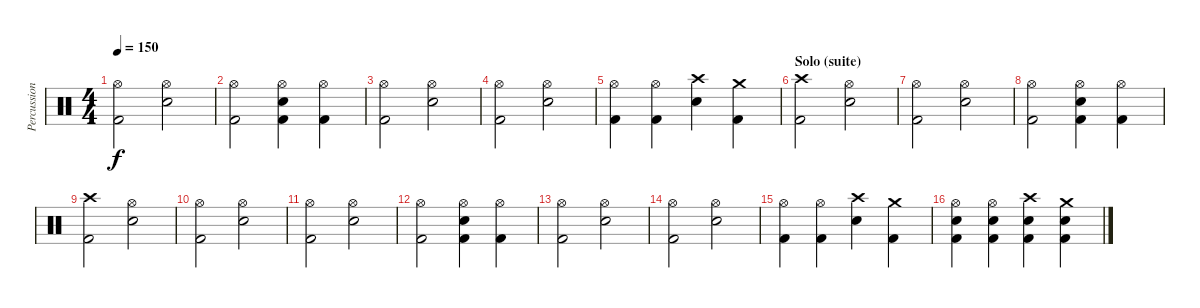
\track ("Percussions" "Percussion") {instrument percussion}
\staff {score}
\articulation defaults
\ts (4 4)
\tempo 150
\clef neutral
\ks c
("Hi-Hat (open)" "Kick (hit) 2").2{dy f} ("Hi-Hat (open)" "Snare (hit) 2").2 |
("Hi-Hat (open)" "Kick (hit) 2").2 ("Hi-Hat (open)" "Snare (hit) 2" "Kick (hit) 2").4 ("Hi-Hat (open)" "Kick (hit) 2").4 |
("Hi-Hat (open)" "Kick (hit) 2").2 ("Hi-Hat (open)" "Snare (hit) 2").2 |
("Hi-Hat (open)" "Kick (hit) 2").2 ("Hi-Hat (open)" "Snare (hit) 2").2 |
("Hi-Hat (open)" "Kick (hit) 2").4 ("Hi-Hat (open)" "Kick (hit) 2").4 ("Crash high (hit)" "Snare (hit) 2").4 ("Crash medium (hit)" "Kick (hit) 2").4 |
\section ("" "Solo (suite)")
("Crash high (hit)" "Kick (hit) 2").2 ("Hi-Hat (open)" "Snare (hit) 2").2 |
("Hi-Hat (open)" "Kick (hit) 2").2 ("Hi-Hat (open)" "Snare (hit) 2").2 |
("Hi-Hat (open)" "Kick (hit) 2").2 ("Hi-Hat (open)" "Snare (hit) 2" "Kick (hit) 2").4 ("Hi-Hat (open)" "Kick (hit) 2").4 |
("Crash high (hit)" "Kick (hit) 2").2 ("Hi-Hat (open)" "Snare (hit) 2").2 |
("Hi-Hat (open)" "Kick (hit) 2").2 ("Hi-Hat (open)" "Snare (hit) 2").2 |
("Hi-Hat (open)" "Kick (hit) 2").2 ("Hi-Hat (open)" "Snare (hit) 2").2 |
("Hi-Hat (open)" "Kick (hit) 2").2 ("Hi-Hat (open)" "Snare (hit) 2" "Kick (hit) 2").4 ("Hi-Hat (open)" "Kick (hit) 2").4 |
("Hi-Hat (open)" "Kick (hit) 2").2 ("Hi-Hat (open)" "Snare (hit) 2").2 |
("Hi-Hat (open)" "Kick (hit) 2").2 ("Hi-Hat (open)" "Snare (hit) 2").2 |
("Hi-Hat (open)" "Kick (hit) 2").4 ("Hi-Hat (open)" "Kick (hit) 2").4 ("Crash high (hit)" "Snare (hit) 2").4 ("Crash medium (hit)" "Kick (hit) 2").4 |
("Hi-Hat (open)" "Snare (hit) 2" "Kick (hit) 2").4 ("Hi-Hat (open)" "Snare (hit) 2" "Kick (hit) 2").4 ("Crash high (hit)" "Snare (hit) 2" "Kick (hit) 2").4 ("Crash medium (hit)" "Snare (hit) 2" "Kick (hit) 2").4
